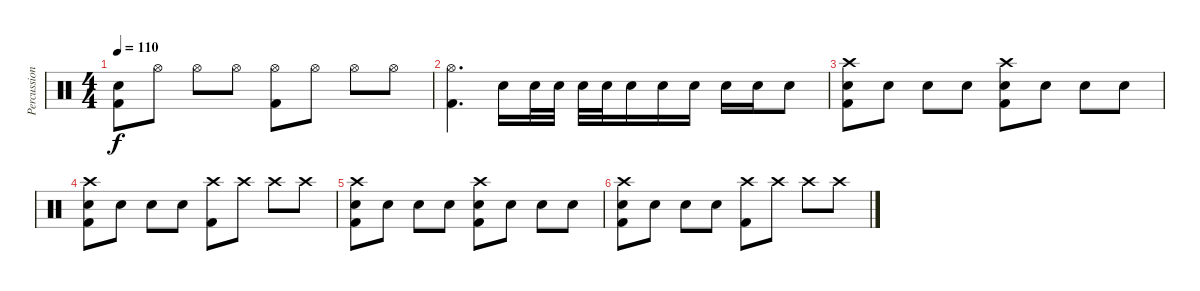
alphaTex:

\track ("Percussion" "Percussion") {instrument percussion}
\staff {score}
\articulation defaults
\ts (4 4)
\tempo 110
\clef neutral
\ks c
("Electric Snare (hit)" "Kick (hit) 2").8{dy f} "Hi-Hat (open)".8 "Hi-Hat (open)".8 "Hi-Hat (open)".8 ("Hi-Hat (open)" "Kick (hit) 2").8 "Hi-Hat (open)".8 "Hi-Hat (open)".8 "Hi-Hat (open)".8 |
("Hi-Hat (open)" "Kick (hit) 2").4{d} "Electric Snare (hit)".16 "Electric Snare (hit)".32 "Electric Snare (hit)".32 "Electric Snare (hit)".32 "Electric Snare (hit)".32 "Electric Snare (hit)".16 "Electric Snare (hit)".16 "Electric Snare (hit)".16 "Electric Snare (hit)".16 "Electric Snare (hit)".16 "Electric Snare (hit)".8 |
("Crash high (hit)" "Electric Snare (hit)" "Kick (hit) 2").8 "Electric Snare (hit)".8 "Electric Snare (hit)".8 "Electric Snare (hit)".8 ("Crash high (hit)" "Electric Snare (hit)" "Kick (hit) 2").8 "Electric Snare (hit)".8 "Electric Snare (hit)".8 "Electric Snare (hit)".8 |
("Crash high (hit)" "Electric Snare (hit)" "Kick (hit) 2").8 "Electric Snare (hit)".8 "Electric Snare (hit)".8 "Electric Snare (hit)".8 ("Crash high (hit)" "Kick (hit) 2").8 "Crash high (hit)".8 "Crash high (hit)".8 "Crash high (hit)".8 |
("Crash high (hit)" "Electric Snare (hit)" "Kick (hit) 2").8 "Electric Snare (hit)".8 "Electric Snare (hit)".8 "Electric Snare (hit)".8 ("Crash high (hit)" "Electric Snare (hit)" "Kick (hit) 2").8 "Electric Snare (hit)".8 "Electric Snare (hit)".8 "Electric Snare (hit)".8 |
("Crash high (hit)" "Electric Snare (hit)" "Kick (hit) 2").8 "Electric Snare (hit)".8 "Electric Snare (hit)".8 "Electric Snare (hit)".8 ("Crash high (hit)" "Kick (hit) 2").8 "Crash high (hit)".8 "Crash high (hit)".8 "Crash high (hit)".8
